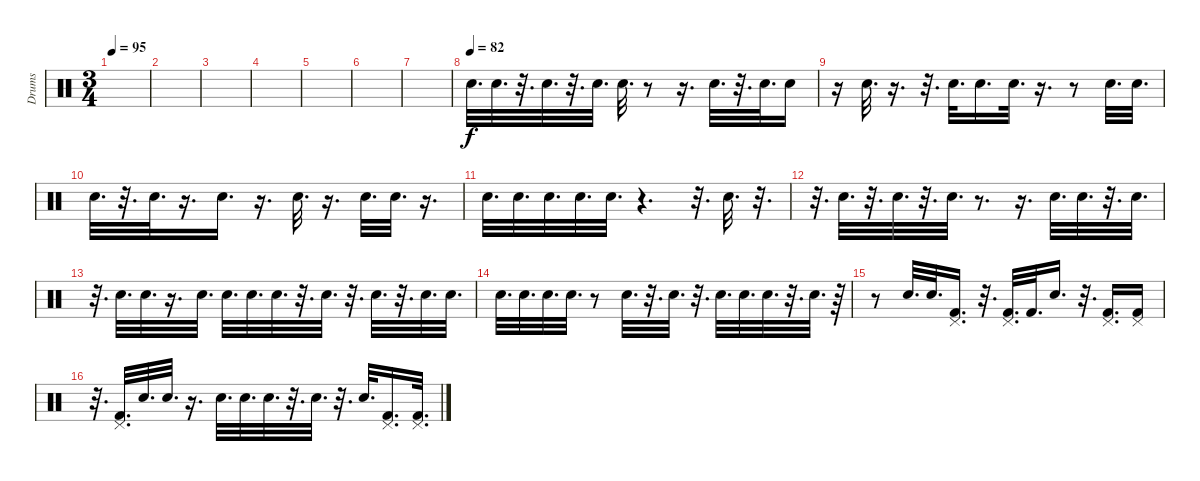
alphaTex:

\track ("Drums" "Drums") {instrument percussion}
\staff {score}
\articulation defaults
\ts (3 4)
\tempo 95
\clef neutral
\ks c
|
|
|
|
|
|
|
\tempo (82)
"Electric Snare (hit)".32{d} "Electric Snare (hit)".32{d} r.32{d} "Electric Snare (hit)".32{d} r.32{d} "Electric Snare (hit)".32{d} "Electric Snare (hit)".32{d} r.8 r.16{d} "Electric Snare (hit)".32{d} r.32{d} "Electric Snare (hit)".32{d} "Electric Snare (hit)".16 |
r.16 "Electric Snare (hit)".32{d} r.16{d} r.32{d} "Electric Snare (hit)".32{d} "Electric Snare (hit)".16{d} "Electric Snare (hit)".32{d} r.16{d} r.8 "Electric Snare (hit)".32{d} "Electric Snare (hit)".32{d} |
"Electric Snare (hit)".32{d} r.32{d} "Electric Snare (hit)".32{d} r.16{d} "Electric Snare (hit)".16{d} r.16{d} "Electric Snare (hit)".32{d} r.16{d} "Electric Snare (hit)".32{d} "Electric Snare (hit)".32{d} r.16{d} |
"Electric Snare (hit)".32{d} "Electric Snare (hit)".32{d} "Electric Snare (hit)".32{d} "Electric Snare (hit)".32{d} "Electric Snare (hit)".32{d} r.4{d} r.32{d} "Electric Snare (hit)".32{d} r.32{d} |
r.32{d} "Electric Snare (hit)".32{d} r.32{d} "Electric Snare (hit)".32{d} r.32{d} "Electric Snare (hit)".32{d} r.8{d} r.16{d} "Electric Snare (hit)".32{d} "Electric Snare (hit)".32{d} r.32{d} "Electric Snare (hit)".32{d} |
r.32{d} "Electric Snare (hit)".32{d} "Electric Snare (hit)".32{d} r.16{d} "Electric Snare (hit)".32{d} "Electric Snare (hit)".32{d} "Electric Snare (hit)".32{d} "Electric Snare (hit)".32{d} r.32{d} "Electric Snare (hit)".32{d} r.32{d} "Electric Snare (hit)".32{d} r.32{d} "Electric Snare (hit)".32{d} "Electric Snare (hit)".32{d} |
"Electric Snare (hit)".32{d} "Electric Snare (hit)".32{d} "Electric Snare (hit)".32{d} "Electric Snare (hit)".32{d} r.8 "Electric Snare (hit)".32{d} r.32{d} "Electric Snare (hit)".32{d} r.32{d} "Electric Snare (hit)".32{d} "Electric Snare (hit)".32{d} "Electric Snare (hit)".32{d} r.32{d} "Electric Snare (hit)".32{d} r.64 |
r.8 "Electric Snare (hit)".32{d} "Electric Snare (hit)".32{d} ("Pedal Hi-Hat (hit)" "Kick (hit) 2").16{d} r.32{d} ("Pedal Hi-Hat (hit)" "Kick (hit) 2").32{d} "Kick (hit) 2".32{d} "Electric Snare (hit)".16{d} r.32{d} ("Pedal Hi-Hat (hit)" "Kick (hit) 2").16{d} ("Pedal Hi-Hat (hit)" "Kick (hit) 2").16 |
r.32{d} ("Pedal Hi-Hat (hit)" "Kick (hit) 2").32{d} "Electric Snare (hit)".32{d} "Electric Snare (hit)".32{d} r.16{d} "Electric Snare (hit)".32{d} "Electric Snare (hit)".32{d} "Electric Snare (hit)".32{d} r.32{d} "Electric Snare (hit)".32{d} r.32{d} "Electric Snare (hit)".32{d} ("Pedal Hi-Hat (hit)" "Kick (hit) 2").16{d} ("Pedal Hi-Hat (hit)" "Kick (hit) 2").32{d}
